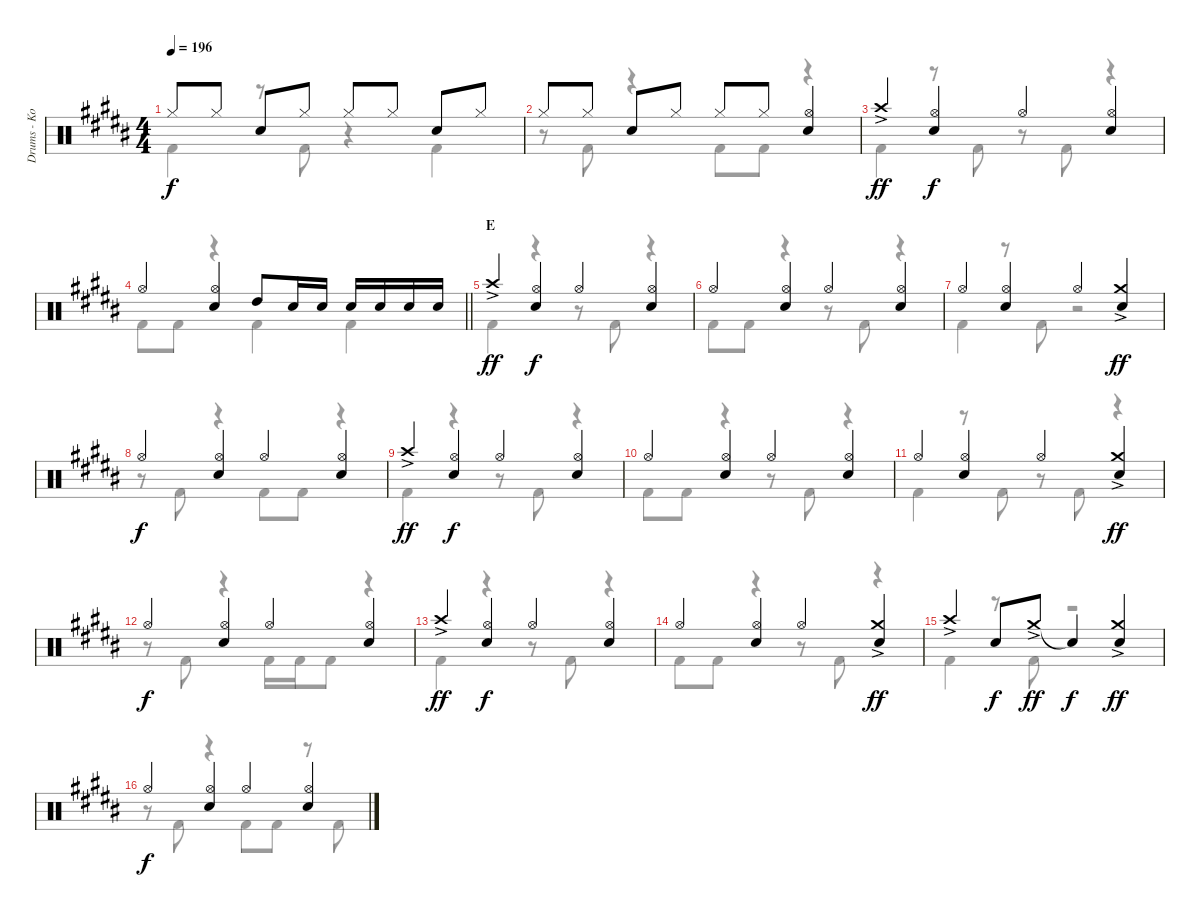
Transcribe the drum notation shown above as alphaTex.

\track ("Drums - Koji Hasegawa" "Drums - Ko") {instrument percussion}
\staff {score}
\articulation defaults
\voice
\ts (4 4)
\tempo 196
\clef neutral
\ks b "Hi-Hat (closed)".8{dy f} "Hi-Hat (closed)".8 "Snare (hit) 2".8 "Hi-Hat (closed)".8 "Hi-Hat (closed)".8 "Hi-Hat (closed)".8 "Snare (hit) 2".8 "Hi-Hat (closed)".8
|
"Hi-Hat (closed)".8 "Hi-Hat (closed)".8 "Snare (hit) 2".8 "Hi-Hat (closed)".8 "Hi-Hat (closed)".8 "Hi-Hat (closed)".8 ("Hi-Hat (open)" "Snare (hit) 2").4 |
"Crash high (hit)"{ac}.4{dy ff} ("Hi-Hat (open)" "Snare (hit) 2").4{dy f} "Hi-Hat (open)".4 ("Hi-Hat (open)" "Snare (hit) 2").4 |
\barLineRight lightlight "Hi-Hat (open)".4
("Hi-Hat (open)" "Snare (hit) 2").4 "High Tom (hit)".8 "Snare (hit) 2".16 "Snare (hit) 2".16 "Snare (hit) 2".16 "Snare (hit) 2".16 "Snare (hit) 2".16 "Snare (hit) 2".16 |
\section ("" "E")
"Crash high (hit)"{ac}.4{dy ff} ("Hi-Hat (open)" "Snare (hit) 2").4{dy f} "Hi-Hat (open)".4 ("Hi-Hat (open)" "Snare (hit) 2").4 |
"Hi-Hat (open)".4 ("Hi-Hat (open)" "Snare (hit) 2").4 "Hi-Hat (open)".4 ("Hi-Hat (open)" "Snare (hit) 2").4 |
"Hi-Hat (open)".4 ("Hi-Hat (open)" "Snare (hit) 2").4 "Hi-Hat (open)".4 ("Crash medium (hit)"{ac} "Snare (hit) 2").4{dy ff} |
"Hi-Hat (open)".4{dy f} ("Hi-Hat (open)" "Snare (hit) 2").4 "Hi-Hat (open)".4 ("Hi-Hat (open)" "Snare (hit) 2").4 |
"Crash high (hit)"{ac}.4{dy ff} ("Hi-Hat (open)" "Snare (hit) 2").4{dy f} "Hi-Hat (open)".4 ("Hi-Hat (open)" "Snare (hit) 2").4 |
"Hi-Hat (open)".4 ("Hi-Hat (open)" "Snare (hit) 2").4 "Hi-Hat (open)".4 ("Hi-Hat (open)" "Snare (hit) 2").4 |
"Hi-Hat (open)".4 ("Hi-Hat (open)" "Snare (hit) 2").4 "Hi-Hat (open)".4 ("Crash medium (hit)"{ac} "Snare (hit) 2").4{dy ff} |
"Hi-Hat (open)".4{dy f} ("Hi-Hat (open)" "Snare (hit) 2").4 "Hi-Hat (open)".4 ("Hi-Hat (open)" "Snare (hit) 2").4 |
"Crash high (hit)"{ac}.4{dy ff} ("Hi-Hat (open)" "Snare (hit) 2").4{dy f} "Hi-Hat (open)".4 ("Hi-Hat (open)" "Snare (hit) 2").4 |
"Hi-Hat (open)".4 ("Hi-Hat (open)" "Snare (hit) 2").4 "Hi-Hat (open)".4 ("Crash medium (hit)"{ac} "Snare (hit) 2").4{dy ff} |
"Crash high (hit)"{ac}.4 "Snare (hit) 2".8{dy f} "Crash medium (hit)"{ac}.8{dy ff} "Snare (hit)"{t}.4{dy f} ("Crash medium (hit)"{ac} "Snare (hit) 2").4{dy ff} |
"Hi-Hat (open)".4{dy f} ("Hi-Hat (open)" "Snare (hit) 2").4 "Hi-Hat (open)".4 ("Hi-Hat (open)" "Snare (hit) 2").4
\voice
\clef neutral
\ottava regular
\simile none
\ks b "Kick (hit) 2".4{dy f}
r.8 "Kick (hit) 2".8 r.4 "Kick (hit) 2".4 |
r.8 "Kick (hit) 2".8 r.4 "Kick (hit) 2".8 "Kick (hit) 2".8 r.4 |
"Kick (hit) 2".4 r.8 "Kick (hit) 2".8 r.8 "Kick (hit) 2".8 r.4 |
\barLineRight lightlight "Kick (hit) 2".8 "Kick (hit) 2".8
r.4 "Kick (hit) 2".4 "Kick (hit) 2".4 |
"Kick (hit) 2".4 r.4 r.8 "Kick (hit) 2".8 r.4 |
"Kick (hit) 2".8 "Kick (hit) 2".8 r.4 r.8 "Kick (hit) 2".8 r.4 |
"Kick (hit) 2".4 r.8 "Kick (hit) 2".8 r.2 |
r.8 "Kick (hit) 2".8 r.4 "Kick (hit) 2".8 "Kick (hit) 2".8 r.4 |
"Kick (hit) 2".4 r.4 r.8 "Kick (hit) 2".8 r.4 |
"Kick (hit) 2".8 "Kick (hit) 2".8 r.4 r.8 "Kick (hit) 2".8 r.4 |
"Kick (hit) 2".4 r.8 "Kick (hit) 2".8 r.8 "Kick (hit) 2".8 r.4 |
r.8 "Kick (hit) 2".8 r.4 "Kick (hit) 2".16 "Kick (hit) 2".16 "Kick (hit) 2".8 r.4 |
"Kick (hit) 2".4 r.4 r.8 "Kick (hit) 2".8 r.4 |
"Kick (hit) 2".8 "Kick (hit) 2".8 r.4 r.8 "Kick (hit) 2".8 r.4 |
"Kick (hit) 2".4 r.8 "Kick (hit) 2".8 r.2 |
r.8 "Kick (hit) 2".8 r.4 "Kick (hit) 2".8 "Kick (hit) 2".8 r.8 "Kick (hit) 2".8
